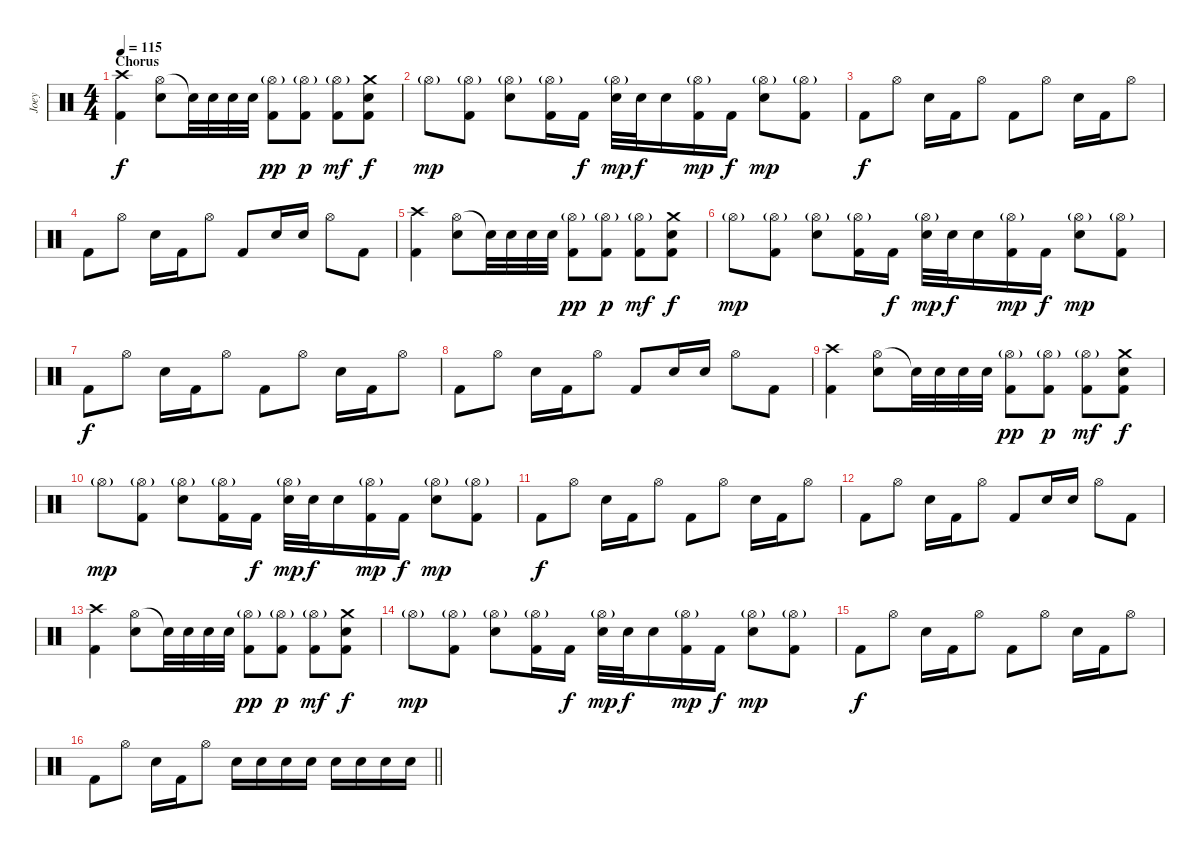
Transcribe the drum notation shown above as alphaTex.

\track ("Joey" "Joey") {instrument percussion}
\staff {score}
\articulation defaults
\ts (4 4)
\section ("" "Chorus")
\tempo 115
\clef neutral
\ks c
("Crash high (hit)" "Kick (hit) 2").4{dy f} ("Hi-Hat (open)" "Electric Snare (hit)").8 "Snare (hit)"{t}.32 "Electric Snare (hit)".32 "Electric Snare (hit)".32 "Electric Snare (hit)".32 ("Hi-Hat (open)"{g} "Kick (hit) 2").8{dy pp} ("Hi-Hat (open)"{g} "Kick (hit) 2").8{dy p} ("Hi-Hat (open)"{g} "Kick (hit) 2").8{dy mf} ("Crash medium (hit)" "Electric Snare (hit)" "Kick (hit) 2").8{dy f} |
"Hi-Hat (open)"{g}.8{dy mp} ("Hi-Hat (open)"{g} "Kick (hit) 2").8 ("Hi-Hat (open)"{g} "Electric Snare (hit)").8 ("Hi-Hat (open)"{g} "Kick (hit) 2").16 "Kick (hit) 2".16{dy f} ("Hi-Hat (open)"{g} "Electric Snare (hit)").32{dy mp} "Electric Snare (hit)".32{dy f} "Electric Snare (hit)".16 ("Hi-Hat (open)"{g} "Kick (hit) 2").16{dy mp} "Kick (hit) 2".16{dy f} ("Hi-Hat (open)"{g} "Electric Snare (hit)").8{dy mp} ("Hi-Hat (open)"{g} "Kick (hit) 2").8 |
"Kick (hit) 2".8{dy f} "Hi-Hat (open)".8 "Electric Snare (hit)".16 "Kick (hit) 2".16 "Hi-Hat (open)".8 "Kick (hit) 2".8 "Hi-Hat (open)".8 "Electric Snare (hit)".16 "Kick (hit) 2".16 "Hi-Hat (open)".8 |
"Kick (hit) 2".8 "Hi-Hat (open)".8 "Electric Snare (hit)".16 "Kick (hit) 2".16 "Hi-Hat (open)".8 "Kick (hit) 2".8 "Electric Snare (hit)".16 "Electric Snare (hit)".16 "Hi-Hat (open)".8 "Kick (hit) 2".8 |
("Crash high (hit)" "Kick (hit) 2").4 ("Hi-Hat (open)" "Electric Snare (hit)").8 "Snare (hit)"{t}.32 "Electric Snare (hit)".32 "Electric Snare (hit)".32 "Electric Snare (hit)".32 ("Hi-Hat (open)"{g} "Kick (hit) 2").8{dy pp} ("Hi-Hat (open)"{g} "Kick (hit) 2").8{dy p} ("Hi-Hat (open)"{g} "Kick (hit) 2").8{dy mf} ("Crash medium (hit)" "Electric Snare (hit)" "Kick (hit) 2").8{dy f} |
"Hi-Hat (open)"{g}.8{dy mp} ("Hi-Hat (open)"{g} "Kick (hit) 2").8 ("Hi-Hat (open)"{g} "Electric Snare (hit)").8 ("Hi-Hat (open)"{g} "Kick (hit) 2").16 "Kick (hit) 2".16{dy f} ("Hi-Hat (open)"{g} "Electric Snare (hit)").32{dy mp} "Electric Snare (hit)".32{dy f} "Electric Snare (hit)".16 ("Hi-Hat (open)"{g} "Kick (hit) 2").16{dy mp} "Kick (hit) 2".16{dy f} ("Hi-Hat (open)"{g} "Electric Snare (hit)").8{dy mp} ("Hi-Hat (open)"{g} "Kick (hit) 2").8 |
"Kick (hit) 2".8{dy f} "Hi-Hat (open)".8 "Electric Snare (hit)".16 "Kick (hit) 2".16 "Hi-Hat (open)".8 "Kick (hit) 2".8 "Hi-Hat (open)".8 "Electric Snare (hit)".16 "Kick (hit) 2".16 "Hi-Hat (open)".8 |
"Kick (hit) 2".8 "Hi-Hat (open)".8 "Electric Snare (hit)".16 "Kick (hit) 2".16 "Hi-Hat (open)".8 "Kick (hit) 2".8 "Electric Snare (hit)".16 "Electric Snare (hit)".16 "Hi-Hat (open)".8 "Kick (hit) 2".8 |
("Crash high (hit)" "Kick (hit) 2").4 ("Hi-Hat (open)" "Electric Snare (hit)").8 "Snare (hit)"{t}.32 "Electric Snare (hit)".32 "Electric Snare (hit)".32 "Electric Snare (hit)".32 ("Hi-Hat (open)"{g} "Kick (hit) 2").8{dy pp} ("Hi-Hat (open)"{g} "Kick (hit) 2").8{dy p} ("Hi-Hat (open)"{g} "Kick (hit) 2").8{dy mf} ("Crash medium (hit)" "Electric Snare (hit)" "Kick (hit) 2").8{dy f} |
"Hi-Hat (open)"{g}.8{dy mp} ("Hi-Hat (open)"{g} "Kick (hit) 2").8 ("Hi-Hat (open)"{g} "Electric Snare (hit)").8 ("Hi-Hat (open)"{g} "Kick (hit) 2").16 "Kick (hit) 2".16{dy f} ("Hi-Hat (open)"{g} "Electric Snare (hit)").32{dy mp} "Electric Snare (hit)".32{dy f} "Electric Snare (hit)".16 ("Hi-Hat (open)"{g} "Kick (hit) 2").16{dy mp} "Kick (hit) 2".16{dy f} ("Hi-Hat (open)"{g} "Electric Snare (hit)").8{dy mp} ("Hi-Hat (open)"{g} "Kick (hit) 2").8 |
"Kick (hit) 2".8{dy f} "Hi-Hat (open)".8 "Electric Snare (hit)".16 "Kick (hit) 2".16 "Hi-Hat (open)".8 "Kick (hit) 2".8 "Hi-Hat (open)".8 "Electric Snare (hit)".16 "Kick (hit) 2".16 "Hi-Hat (open)".8 |
"Kick (hit) 2".8 "Hi-Hat (open)".8 "Electric Snare (hit)".16 "Kick (hit) 2".16 "Hi-Hat (open)".8 "Kick (hit) 2".8 "Electric Snare (hit)".16 "Electric Snare (hit)".16 "Hi-Hat (open)".8 "Kick (hit) 2".8 |
("Crash high (hit)" "Kick (hit) 2").4 ("Hi-Hat (open)" "Electric Snare (hit)").8 "Snare (hit)"{t}.32 "Electric Snare (hit)".32 "Electric Snare (hit)".32 "Electric Snare (hit)".32 ("Hi-Hat (open)"{g} "Kick (hit) 2").8{dy pp} ("Hi-Hat (open)"{g} "Kick (hit) 2").8{dy p} ("Hi-Hat (open)"{g} "Kick (hit) 2").8{dy mf} ("Crash medium (hit)" "Electric Snare (hit)" "Kick (hit) 2").8{dy f} |
"Hi-Hat (open)"{g}.8{dy mp} ("Hi-Hat (open)"{g} "Kick (hit) 2").8 ("Hi-Hat (open)"{g} "Electric Snare (hit)").8 ("Hi-Hat (open)"{g} "Kick (hit) 2").16 "Kick (hit) 2".16{dy f} ("Hi-Hat (open)"{g} "Electric Snare (hit)").32{dy mp} "Electric Snare (hit)".32{dy f} "Electric Snare (hit)".16 ("Hi-Hat (open)"{g} "Kick (hit) 2").16{dy mp} "Kick (hit) 2".16{dy f} ("Hi-Hat (open)"{g} "Electric Snare (hit)").8{dy mp} ("Hi-Hat (open)"{g} "Kick (hit) 2").8 |
"Kick (hit) 2".8{dy f} "Hi-Hat (open)".8 "Electric Snare (hit)".16 "Kick (hit) 2".16 "Hi-Hat (open)".8 "Kick (hit) 2".8 "Hi-Hat (open)".8 "Electric Snare (hit)".16 "Kick (hit) 2".16 "Hi-Hat (open)".8 |
\barLineRight lightlight "Kick (hit) 2".8 "Hi-Hat (open)".8 "Electric Snare (hit)".16 "Kick (hit) 2".16 "Hi-Hat (open)".8 "Electric Snare (hit)".16 "Electric Snare (hit)".16 "Electric Snare (hit)".16 "Electric Snare (hit)".16 "Electric Snare (hit)".16 "Electric Snare (hit)".16 "Electric Snare (hit)".16 "Electric Snare (hit)".16
